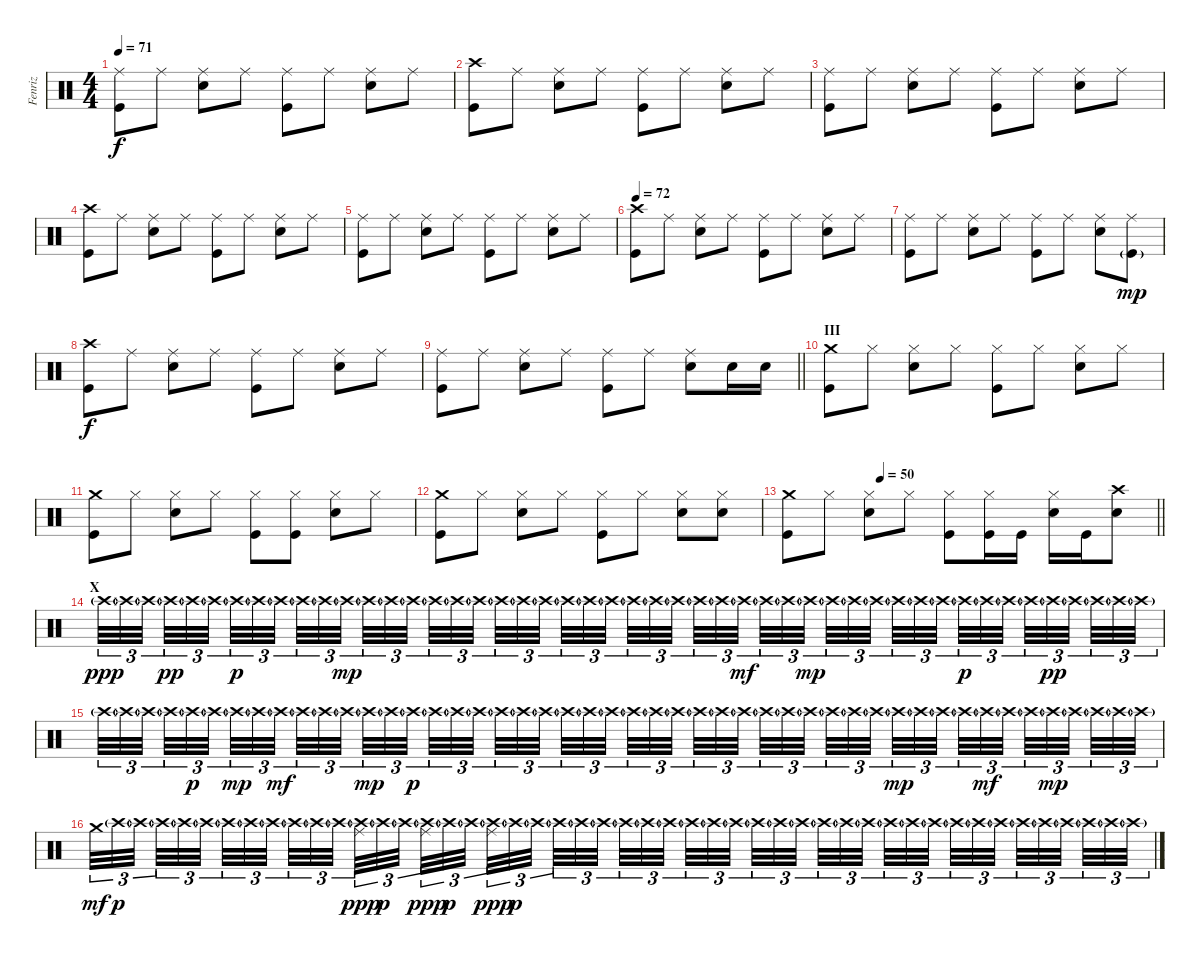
\track ("Fenriz" "Fenriz") {instrument percussion}
\staff {score}
\articulation defaults
\ts (4 4)
\tempo 71
\clef neutral
\ks c
("Kick (hit)" "Ride (middle)").8{dy f} "Ride (middle)".8 ("Snare (hit) 2" "Ride (middle)").8 "Ride (middle)".8 ("Kick (hit)" "Ride (middle)").8 "Ride (middle)".8 ("Snare (hit) 2" "Ride (middle)").8 "Ride (middle)".8 |
("Kick (hit)" "Crash high (hit)").8 "Ride (middle)".8 ("Snare (hit) 2" "Ride (middle)").8 "Ride (middle)".8 ("Kick (hit)" "Ride (middle)").8 "Ride (middle)".8 ("Snare (hit) 2" "Ride (middle)").8 "Ride (middle)".8 |
("Kick (hit)" "Ride (middle)").8 "Ride (middle)".8 ("Snare (hit) 2" "Ride (middle)").8 "Ride (middle)".8 ("Kick (hit)" "Ride (middle)").8 "Ride (middle)".8 ("Snare (hit) 2" "Ride (middle)").8 "Ride (middle)".8 |
("Kick (hit)" "Crash high (hit)").8 "Ride (middle)".8 ("Snare (hit) 2" "Ride (middle)").8 "Ride (middle)".8 ("Kick (hit)" "Ride (middle)").8 "Ride (middle)".8 ("Snare (hit) 2" "Ride (middle)").8 "Ride (middle)".8 |
("Kick (hit)" "Ride (middle)").8 "Ride (middle)".8 ("Snare (hit) 2" "Ride (middle)").8 "Ride (middle)".8 ("Kick (hit)" "Ride (middle)").8 "Ride (middle)".8 ("Snare (hit) 2" "Ride (middle)").8 "Ride (middle)".8 |
\tempo 72
("Kick (hit)" "Crash high (hit)").8 "Ride (middle)".8 ("Snare (hit) 2" "Ride (middle)").8 "Ride (middle)".8 ("Kick (hit)" "Ride (middle)").8 "Ride (middle)".8 ("Snare (hit) 2" "Ride (middle)").8 "Ride (middle)".8 |
("Kick (hit)" "Ride (middle)").8 "Ride (middle)".8 ("Snare (hit) 2" "Ride (middle)").8 "Ride (middle)".8 ("Kick (hit)" "Ride (middle)").8 "Ride (middle)".8 ("Snare (hit) 2" "Ride (middle)").8 ("Kick (hit)"{g} "Ride (middle)").8{dy mp} |
("Kick (hit)" "Crash high (hit)").8{dy f} "Ride (middle)".8 ("Snare (hit) 2" "Ride (middle)").8 "Ride (middle)".8 ("Kick (hit)" "Ride (middle)").8 "Ride (middle)".8 ("Snare (hit) 2" "Ride (middle)").8 "Ride (middle)".8 |
\barLineRight lightlight
("Kick (hit)" "Ride (middle)").8 "Ride (middle)".8 ("Snare (hit) 2" "Ride (middle)").8 "Ride (middle)".8 ("Kick (hit)" "Ride (middle)").8 "Ride (middle)".8 ("Snare (hit) 2" "Ride (middle)").8 "Snare (hit) 2".16 "Snare (hit) 2".16 |
\section ("" "III")
("Kick (hit)" "Crash medium (hit)").8 "Hi-Hat (closed)".8 ("Snare (hit) 2" "Hi-Hat (closed)").8 "Hi-Hat (closed)".8 ("Kick (hit)" "Hi-Hat (closed)").8 "Hi-Hat (closed)".8 ("Snare (hit) 2" "Hi-Hat (closed)").8 "Hi-Hat (closed)".8 |
("Kick (hit)" "Crash medium (hit)").8 "Hi-Hat (closed)".8 ("Snare (hit) 2" "Hi-Hat (closed)").8 "Hi-Hat (closed)".8 ("Kick (hit)" "Hi-Hat (closed)").8 ("Kick (hit)" "Hi-Hat (closed)").8 ("Snare (hit) 2" "Hi-Hat (closed)").8 "Hi-Hat (closed)".8 |
("Kick (hit)" "Crash medium (hit)").8 "Hi-Hat (closed)".8 ("Snare (hit) 2" "Hi-Hat (closed)").8 "Hi-Hat (closed)".8 ("Kick (hit)" "Hi-Hat (closed)").8 "Hi-Hat (closed)".8 ("Snare (hit) 2" "Hi-Hat (closed)").8 ("Snare (hit) 2" "Hi-Hat (closed)").8 |
\tempo (50 0.25)
\barLineRight lightlight
("Kick (hit)" "Crash medium (hit)").8 "Hi-Hat (closed)".8 ("Snare (hit) 2" "Hi-Hat (closed)").8 "Hi-Hat (closed)".8 ("Kick (hit)" "Hi-Hat (closed)").8 ("Kick (hit)" "Hi-Hat (closed)").16 "Kick (hit)".16 ("Snare (hit) 2" "Hi-Hat (closed)").16 "Kick (hit)".16 ("Snare (hit) 2" "Crash high (hit)").8 |
\section ("" "X")
"Crash high (hit)"{g}.32{tu (3 2) dy ppp} "Crash high (hit)"{g}.32{tu (3 2)} "Crash high (hit)"{g}.32{tu (3 2) beam splitsecondary} "Crash high (hit)"{g}.32{tu (3 2) dy pp} "Crash high (hit)"{g}.32{tu (3 2)} "Crash high (hit)"{g}.32{tu (3 2) beam splitsecondary} "Crash high (hit)"{g}.32{tu (3 2) dy p} "Crash high (hit)"{g}.32{tu (3 2)} "Crash high (hit)"{g}.32{tu (3 2) beam splitsecondary} "Crash high (hit)"{g}.32{tu (3 2)} "Crash high (hit)"{g}.32{tu (3 2)} "Crash high (hit)"{g}.32{tu (3 2) dy mp} "Crash high (hit)"{g}.32{tu (3 2)} "Crash high (hit)"{g}.32{tu (3 2)} "Crash high (hit)"{g}.32{tu (3 2) beam splitsecondary} "Crash high (hit)"{g}.32{tu (3 2)} "Crash high (hit)"{g}.32{tu (3 2)} "Crash high (hit)"{g}.32{tu (3 2) beam splitsecondary} "Crash high (hit)"{g}.32{tu (3 2)} "Crash high (hit)"{g}.32{tu (3 2)} "Crash high (hit)"{g}.32{tu (3 2) beam splitsecondary} "Crash high (hit)"{g}.32{tu (3 2)} "Crash high (hit)"{g}.32{tu (3 2)} "Crash high (hit)"{g}.32{tu (3 2)} "Crash high (hit)"{g}.32{tu (3 2)} "Crash high (hit)"{g}.32{tu (3 2)} "Crash high (hit)"{g}.32{tu (3 2) beam splitsecondary} "Crash high (hit)"{g}.32{tu (3 2)} "Crash high (hit)"{g}.32{tu (3 2)} "Crash high (hit)"{g}.32{tu (3 2) dy mf beam splitsecondary} "Crash high (hit)"{g}.32{tu (3 2)} "Crash high (hit)"{g}.32{tu (3 2)} "Crash high (hit)"{g}.32{tu (3 2) dy mp beam splitsecondary} "Crash high (hit)"{g}.32{tu (3 2)} "Crash high (hit)"{g}.32{tu (3 2)} "Crash high (hit)"{g}.32{tu (3 2)} "Crash high (hit)"{g}.32{tu (3 2)} "Crash high (hit)"{g}.32{tu (3 2)} "Crash high (hit)"{g}.32{tu (3 2) beam splitsecondary} "Crash high (hit)"{g}.32{tu (3 2) dy p} "Crash high (hit)"{g}.32{tu (3 2)} "Crash high (hit)"{g}.32{tu (3 2) beam splitsecondary} "Crash high (hit)"{g}.32{tu (3 2)} "Crash high (hit)"{g}.32{tu (3 2) dy pp} "Crash high (hit)"{g}.32{tu (3 2) beam splitsecondary} "Crash high (hit)"{g}.32{tu (3 2)} "Crash high (hit)"{g}.32{tu (3 2)} "Crash high (hit)"{g}.32{tu (3 2)} |
"Crash high (hit)"{g}.32{tu (3 2)} "Crash high (hit)"{g}.32{tu (3 2)} "Crash high (hit)"{g}.32{tu (3 2) beam splitsecondary} "Crash high (hit)"{g}.32{tu (3 2)} "Crash high (hit)"{g}.32{tu (3 2) dy p} "Crash high (hit)"{g}.32{tu (3 2) beam splitsecondary} "Crash high (hit)"{g}.32{tu (3 2) dy mp} "Crash high (hit)"{g}.32{tu (3 2)} "Crash high (hit)"{g}.32{tu (3 2) dy mf beam splitsecondary} "Crash high (hit)"{g}.32{tu (3 2)} "Crash high (hit)"{g}.32{tu (3 2)} "Crash high (hit)"{g}.32{tu (3 2)} "Crash high (hit)"{g}.32{tu (3 2) dy mp} "Crash high (hit)"{g}.32{tu (3 2)} "Crash high (hit)"{g}.32{tu (3 2) dy p beam splitsecondary} "Crash high (hit)"{g}.32{tu (3 2)} "Crash high (hit)"{g}.32{tu (3 2)} "Crash high (hit)"{g}.32{tu (3 2) beam splitsecondary} "Crash high (hit)"{g}.32{tu (3 2)} "Crash high (hit)"{g}.32{tu (3 2)} "Crash high (hit)"{g}.32{tu (3 2) beam splitsecondary} "Crash high (hit)"{g}.32{tu (3 2)} "Crash high (hit)"{g}.32{tu (3 2)} "Crash high (hit)"{g}.32{tu (3 2)} "Crash high (hit)"{g}.32{tu (3 2)} "Crash high (hit)"{g}.32{tu (3 2)} "Crash high (hit)"{g}.32{tu (3 2) beam splitsecondary} "Crash high (hit)"{g}.32{tu (3 2)} "Crash high (hit)"{g}.32{tu (3 2)} "Crash high (hit)"{g}.32{tu (3 2) beam splitsecondary} "Crash high (hit)"{g}.32{tu (3 2)} "Crash high (hit)"{g}.32{tu (3 2)} "Crash high (hit)"{g}.32{tu (3 2) beam splitsecondary} "Crash high (hit)"{g}.32{tu (3 2)} "Crash high (hit)"{g}.32{tu (3 2)} "Crash high (hit)"{g}.32{tu (3 2)} "Crash high (hit)"{g}.32{tu (3 2) dy mp} "Crash high (hit)"{g}.32{tu (3 2)} "Crash high (hit)"{g}.32{tu (3 2) beam splitsecondary} "Crash high (hit)"{g}.32{tu (3 2)} "Crash high (hit)"{g}.32{tu (3 2) dy mf} "Crash high (hit)"{g}.32{tu (3 2) beam splitsecondary} "Crash high (hit)"{g}.32{tu (3 2)} "Crash high (hit)"{g}.32{tu (3 2) dy mp} "Crash high (hit)"{g}.32{tu (3 2) beam splitsecondary} "Crash high (hit)"{g}.32{tu (3 2)} "Crash high (hit)"{g}.32{tu (3 2)} "Crash high (hit)"{g}.32{tu (3 2)} |
"Crash medium (hit)".32{tu (3 2) dy mf} "Crash high (hit)"{g}.32{tu (3 2) dy p} "Crash high (hit)"{g}.32{tu (3 2) beam splitsecondary} "Crash high (hit)"{g}.32{tu (3 2)} "Crash high (hit)"{g}.32{tu (3 2)} "Crash high (hit)"{g}.32{tu (3 2) beam splitsecondary} "Crash high (hit)"{g}.32{tu (3 2)} "Crash high (hit)"{g}.32{tu (3 2)} "Crash high (hit)"{g}.32{tu (3 2) beam splitsecondary} "Crash high (hit)"{g}.32{tu (3 2)} "Crash high (hit)"{g}.32{tu (3 2)} "Crash high (hit)"{g}.32{tu (3 2)} ("Crash high (hit)"{g} "Ride (middle)").32{tu (3 2) dy ppp} "Crash high (hit)"{g}.32{tu (3 2) dy p} "Crash high (hit)"{g}.32{tu (3 2) beam splitsecondary} ("Crash high (hit)"{g} "Ride (middle)").32{tu (3 2) dy ppp} "Crash high (hit)"{g}.32{tu (3 2) dy p} "Crash high (hit)"{g}.32{tu (3 2) beam splitsecondary} ("Crash high (hit)"{g} "Ride (middle)").32{tu (3 2) dy ppp} "Crash high (hit)"{g}.32{tu (3 2) dy p} "Crash high (hit)"{g}.32{tu (3 2) beam splitsecondary} "Crash high (hit)"{g}.32{tu (3 2)} "Crash high (hit)"{g}.32{tu (3 2)} "Crash high (hit)"{g}.32{tu (3 2)} "Crash high (hit)"{g}.32{tu (3 2)} "Crash high (hit)"{g}.32{tu (3 2)} "Crash high (hit)"{g}.32{tu (3 2) beam splitsecondary} "Crash high (hit)"{g}.32{tu (3 2)} "Crash high (hit)"{g}.32{tu (3 2)} "Crash high (hit)"{g}.32{tu (3 2) beam splitsecondary} "Crash high (hit)"{g}.32{tu (3 2)} "Crash high (hit)"{g}.32{tu (3 2)} "Crash high (hit)"{g}.32{tu (3 2) beam splitsecondary} "Crash high (hit)"{g}.32{tu (3 2)} "Crash high (hit)"{g}.32{tu (3 2)} "Crash high (hit)"{g}.32{tu (3 2)} "Crash high (hit)"{g}.32{tu (3 2)} "Crash high (hit)"{g}.32{tu (3 2)} "Crash high (hit)"{g}.32{tu (3 2) beam splitsecondary} "Crash high (hit)"{g}.32{tu (3 2)} "Crash high (hit)"{g}.32{tu (3 2)} "Crash high (hit)"{g}.32{tu (3 2) beam splitsecondary} "Crash high (hit)"{g}.32{tu (3 2)} "Crash high (hit)"{g}.32{tu (3 2)} "Crash high (hit)"{g}.32{tu (3 2) beam splitsecondary} "Crash high (hit)"{g}.32{tu (3 2)} "Crash high (hit)"{g}.32{tu (3 2)} "Crash high (hit)"{g}.32{tu (3 2)}
